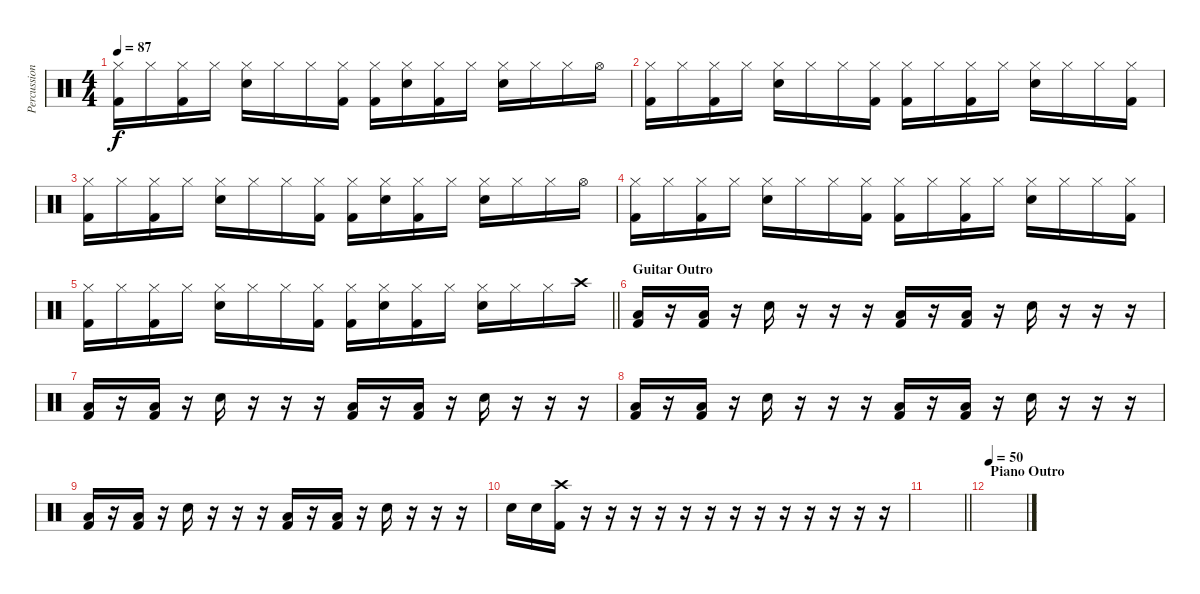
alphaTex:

\track ("Percussion" "Percussion") {instrument percussion}
\staff {score}
\articulation defaults
\ts (4 4)
\tempo 87
\clef neutral
\ks c
("Hi-Hat (closed)" "Kick (hit) 2").16{dy f} "Hi-Hat (closed)".16 ("Hi-Hat (closed)" "Kick (hit) 2").16 "Hi-Hat (closed)".16 ("Hi-Hat (closed)" "Snare (hit) 2").16 "Hi-Hat (closed)".16 "Hi-Hat (closed)".16 ("Hi-Hat (closed)" "Kick (hit) 2").16 ("Hi-Hat (closed)" "Kick (hit) 2").16 ("Hi-Hat (closed)" "Snare (hit) 2").16 ("Hi-Hat (closed)" "Kick (hit) 2").16 "Hi-Hat (closed)".16 ("Hi-Hat (closed)" "Snare (hit) 2").16 "Hi-Hat (closed)".16 "Hi-Hat (closed)".16 "Hi-Hat (open)".16 |
("Hi-Hat (closed)" "Kick (hit) 2").16 "Hi-Hat (closed)".16 ("Hi-Hat (closed)" "Kick (hit) 2").16 "Hi-Hat (closed)".16 ("Hi-Hat (closed)" "Snare (hit) 2").16 "Hi-Hat (closed)".16 "Hi-Hat (closed)".16 ("Hi-Hat (closed)" "Kick (hit) 2").16 ("Hi-Hat (closed)" "Kick (hit) 2").16 "Hi-Hat (closed)".16 ("Hi-Hat (closed)" "Kick (hit) 2").16 "Hi-Hat (closed)".16 ("Hi-Hat (closed)" "Snare (hit) 2").16 "Hi-Hat (closed)".16 "Hi-Hat (closed)".16 ("Hi-Hat (closed)" "Kick (hit) 2").16 |
("Hi-Hat (closed)" "Kick (hit) 2").16 "Hi-Hat (closed)".16 ("Hi-Hat (closed)" "Kick (hit) 2").16 "Hi-Hat (closed)".16 ("Hi-Hat (closed)" "Snare (hit) 2").16 "Hi-Hat (closed)".16 "Hi-Hat (closed)".16 ("Hi-Hat (closed)" "Kick (hit) 2").16 ("Hi-Hat (closed)" "Kick (hit) 2").16 ("Hi-Hat (closed)" "Snare (hit) 2").16 ("Hi-Hat (closed)" "Kick (hit) 2").16 "Hi-Hat (closed)".16 ("Hi-Hat (closed)" "Snare (hit) 2").16 "Hi-Hat (closed)".16 "Hi-Hat (closed)".16 "Hi-Hat (open)".16 |
("Hi-Hat (closed)" "Kick (hit) 2").16 "Hi-Hat (closed)".16 ("Hi-Hat (closed)" "Kick (hit) 2").16 "Hi-Hat (closed)".16 ("Hi-Hat (closed)" "Snare (hit) 2").16 "Hi-Hat (closed)".16 "Hi-Hat (closed)".16 ("Hi-Hat (closed)" "Kick (hit) 2").16 ("Hi-Hat (closed)" "Kick (hit) 2").16 "Hi-Hat (closed)".16 ("Hi-Hat (closed)" "Kick (hit) 2").16 "Hi-Hat (closed)".16 ("Hi-Hat (closed)" "Snare (hit) 2").16 "Hi-Hat (closed)".16 "Hi-Hat (closed)".16 ("Hi-Hat (closed)" "Kick (hit) 2").16 |
\barLineRight lightlight
("Hi-Hat (closed)" "Kick (hit) 2").16 "Hi-Hat (closed)".16 ("Hi-Hat (closed)" "Kick (hit) 2").16 "Hi-Hat (closed)".16 ("Hi-Hat (closed)" "Snare (hit) 2").16 "Hi-Hat (closed)".16 "Hi-Hat (closed)".16 ("Hi-Hat (closed)" "Kick (hit) 2").16 ("Hi-Hat (closed)" "Kick (hit) 2").16 ("Hi-Hat (closed)" "Snare (hit) 2").16 ("Hi-Hat (closed)" "Kick (hit) 2").16 "Hi-Hat (closed)".16 ("Hi-Hat (closed)" "Snare (hit) 2").16 "Hi-Hat (closed)".16 "Hi-Hat (closed)".16 "Crash high (hit)".16 |
\section ("" "Guitar Outro")
("Low Tom (hit)" "Kick (hit) 2").16 r.16 ("Low Tom (hit)" "Kick (hit) 2").16 r.16 "Snare (hit) 2".16 r.16 r.16 r.16 ("Low Tom (hit)" "Kick (hit) 2").16 r.16 ("Low Tom (hit)" "Kick (hit) 2").16 r.16 "Snare (hit) 2".16 r.16 r.16 r.16 |
("Low Tom (hit)" "Kick (hit) 2").16 r.16 ("Low Tom (hit)" "Kick (hit) 2").16 r.16 "Snare (hit) 2".16 r.16 r.16 r.16 ("Low Tom (hit)" "Kick (hit) 2").16 r.16 ("Low Tom (hit)" "Kick (hit) 2").16 r.16 "Snare (hit) 2".16 r.16 r.16 r.16 |
("Low Tom (hit)" "Kick (hit) 2").16 r.16 ("Low Tom (hit)" "Kick (hit) 2").16 r.16 "Snare (hit) 2".16 r.16 r.16 r.16 ("Low Tom (hit)" "Kick (hit) 2").16 r.16 ("Low Tom (hit)" "Kick (hit) 2").16 r.16 "Snare (hit) 2".16 r.16 r.16 r.16 |
("Low Tom (hit)" "Kick (hit) 2").16 r.16 ("Low Tom (hit)" "Kick (hit) 2").16 r.16 "Snare (hit) 2".16 r.16 r.16 r.16 ("Low Tom (hit)" "Kick (hit) 2").16 r.16 ("Low Tom (hit)" "Kick (hit) 2").16 r.16 "Snare (hit) 2".16 r.16 r.16 r.16 |
"Snare (hit) 2".16 "Snare (hit) 2".16 ("Crash high (hit)" "Kick (hit) 2").16 r.16 r.16 r.16 r.16 r.16 r.16 r.16 r.16 r.16 r.16 r.16 r.16 r.16 |
\barLineRight lightlight
|
\section ("" "Piano Outro")
\tempo 50
